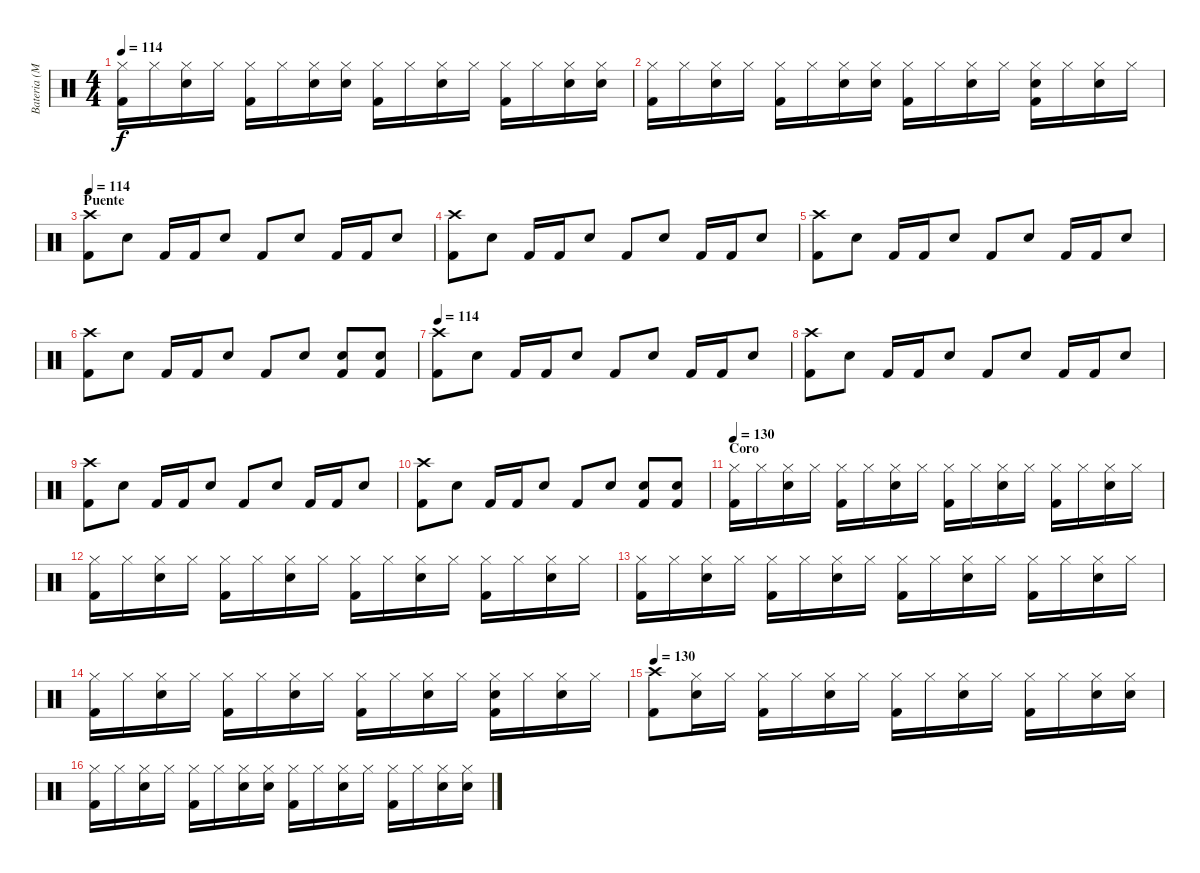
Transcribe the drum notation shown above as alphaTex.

\track ("Bateria (Marcelo)" "Bateria (M") {instrument percussion}
\staff {score}
\articulation defaults
\ts (4 4)
\tempo 114
\clef neutral
\ks c
("Kick (hit) 2" "Hi-Hat (closed)").16{dy f volume 13} "Hi-Hat (closed)".16 ("Snare (hit) 2" "Hi-Hat (closed)").16 "Hi-Hat (closed)".16 ("Kick (hit) 2" "Hi-Hat (closed)").16 "Hi-Hat (closed)".16 ("Snare (hit) 2" "Hi-Hat (closed)").16 ("Snare (hit) 2" "Hi-Hat (closed)").16 ("Kick (hit) 2" "Hi-Hat (closed)").16 "Hi-Hat (closed)".16 ("Snare (hit) 2" "Hi-Hat (closed)").16 "Hi-Hat (closed)".16 ("Kick (hit) 2" "Hi-Hat (closed)").16 "Hi-Hat (closed)".16 ("Snare (hit) 2" "Hi-Hat (closed)").16 ("Snare (hit) 2" "Hi-Hat (closed)").16 |
("Kick (hit) 2" "Hi-Hat (closed)").16 "Hi-Hat (closed)".16 ("Snare (hit) 2" "Hi-Hat (closed)").16 "Hi-Hat (closed)".16 ("Kick (hit) 2" "Hi-Hat (closed)").16 "Hi-Hat (closed)".16 ("Snare (hit) 2" "Hi-Hat (closed)").16 ("Snare (hit) 2" "Hi-Hat (closed)").16 ("Kick (hit) 2" "Hi-Hat (closed)").16 "Hi-Hat (closed)".16 ("Snare (hit) 2" "Hi-Hat (closed)").16 "Hi-Hat (closed)".16 ("Kick (hit) 2" "Hi-Hat (closed)" "Snare (hit) 2").16 "Hi-Hat (closed)".16 ("Snare (hit) 2" "Hi-Hat (closed)").16 "Hi-Hat (closed)".16 |
\section ("" "Puente")
\tempo 114
("Kick (hit) 2" "Crash high (hit)").8{volume 13} "Snare (hit) 2".8 "Kick (hit) 2".16 "Kick (hit) 2".16 "Snare (hit) 2".8 "Kick (hit) 2".8 "Snare (hit) 2".8 "Kick (hit) 2".16 "Kick (hit) 2".16 "Snare (hit) 2".8 |
("Kick (hit) 2" "Crash high (hit)").8 "Snare (hit) 2".8 "Kick (hit) 2".16 "Kick (hit) 2".16 "Snare (hit) 2".8 "Kick (hit) 2".8 "Snare (hit) 2".8 "Kick (hit) 2".16 "Kick (hit) 2".16 "Snare (hit) 2".8 |
("Kick (hit) 2" "Crash high (hit)").8 "Snare (hit) 2".8 "Kick (hit) 2".16 "Kick (hit) 2".16 "Snare (hit) 2".8 "Kick (hit) 2".8 "Snare (hit) 2".8 "Kick (hit) 2".16 "Kick (hit) 2".16 "Snare (hit) 2".8 |
("Kick (hit) 2" "Crash high (hit)").8 "Snare (hit) 2".8 "Kick (hit) 2".16 "Kick (hit) 2".16 "Snare (hit) 2".8 "Kick (hit) 2".8 "Snare (hit) 2".8 ("Kick (hit) 2" "Snare (hit) 2").8 ("Kick (hit) 2" "Snare (hit) 2").8 |
\tempo 114
("Kick (hit) 2" "Crash high (hit)").8{volume 13} "Snare (hit) 2".8 "Kick (hit) 2".16 "Kick (hit) 2".16 "Snare (hit) 2".8 "Kick (hit) 2".8 "Snare (hit) 2".8 "Kick (hit) 2".16 "Kick (hit) 2".16 "Snare (hit) 2".8 |
("Kick (hit) 2" "Crash high (hit)").8 "Snare (hit) 2".8 "Kick (hit) 2".16 "Kick (hit) 2".16 "Snare (hit) 2".8 "Kick (hit) 2".8 "Snare (hit) 2".8 "Kick (hit) 2".16 "Kick (hit) 2".16 "Snare (hit) 2".8 |
("Kick (hit) 2" "Crash high (hit)").8 "Snare (hit) 2".8 "Kick (hit) 2".16 "Kick (hit) 2".16 "Snare (hit) 2".8 "Kick (hit) 2".8 "Snare (hit) 2".8 "Kick (hit) 2".16 "Kick (hit) 2".16 "Snare (hit) 2".8 |
("Kick (hit) 2" "Crash high (hit)").8 "Snare (hit) 2".8 "Kick (hit) 2".16 "Kick (hit) 2".16 "Snare (hit) 2".8 "Kick (hit) 2".8 "Snare (hit) 2".8 ("Kick (hit) 2" "Snare (hit) 2").8 ("Kick (hit) 2" "Snare (hit) 2").8 |
\section ("" "Coro")
\tempo 130
("Kick (hit) 2" "Hi-Hat (closed)").16{volume 13} "Hi-Hat (closed)".16 ("Snare (hit) 2" "Hi-Hat (closed)").16 "Hi-Hat (closed)".16 ("Kick (hit) 2" "Hi-Hat (closed)").16 "Hi-Hat (closed)".16 ("Snare (hit) 2" "Hi-Hat (closed)").16 "Hi-Hat (closed)".16 ("Kick (hit) 2" "Hi-Hat (closed)").16 "Hi-Hat (closed)".16 ("Snare (hit) 2" "Hi-Hat (closed)").16 "Hi-Hat (closed)".16 ("Kick (hit) 2" "Hi-Hat (closed)").16 "Hi-Hat (closed)".16 ("Snare (hit) 2" "Hi-Hat (closed)").16 "Hi-Hat (closed)".16 |
("Kick (hit) 2" "Hi-Hat (closed)").16 "Hi-Hat (closed)".16 ("Snare (hit) 2" "Hi-Hat (closed)").16 "Hi-Hat (closed)".16 ("Kick (hit) 2" "Hi-Hat (closed)").16 "Hi-Hat (closed)".16 ("Snare (hit) 2" "Hi-Hat (closed)").16 "Hi-Hat (closed)".16 ("Kick (hit) 2" "Hi-Hat (closed)").16 "Hi-Hat (closed)".16 ("Snare (hit) 2" "Hi-Hat (closed)").16 "Hi-Hat (closed)".16 ("Kick (hit) 2" "Hi-Hat (closed)").16 "Hi-Hat (closed)".16 ("Snare (hit) 2" "Hi-Hat (closed)").16 "Hi-Hat (closed)".16 |
("Kick (hit) 2" "Hi-Hat (closed)").16 "Hi-Hat (closed)".16 ("Snare (hit) 2" "Hi-Hat (closed)").16 "Hi-Hat (closed)".16 ("Kick (hit) 2" "Hi-Hat (closed)").16 "Hi-Hat (closed)".16 ("Snare (hit) 2" "Hi-Hat (closed)").16 "Hi-Hat (closed)".16 ("Kick (hit) 2" "Hi-Hat (closed)").16 "Hi-Hat (closed)".16 ("Snare (hit) 2" "Hi-Hat (closed)").16 "Hi-Hat (closed)".16 ("Kick (hit) 2" "Hi-Hat (closed)").16 "Hi-Hat (closed)".16 ("Snare (hit) 2" "Hi-Hat (closed)").16 "Hi-Hat (closed)".16 |
("Kick (hit) 2" "Hi-Hat (closed)").16 "Hi-Hat (closed)".16 ("Snare (hit) 2" "Hi-Hat (closed)").16 "Hi-Hat (closed)".16 ("Kick (hit) 2" "Hi-Hat (closed)").16 "Hi-Hat (closed)".16 ("Snare (hit) 2" "Hi-Hat (closed)").16 "Hi-Hat (closed)".16 ("Kick (hit) 2" "Hi-Hat (closed)").16 "Hi-Hat (closed)".16 ("Snare (hit) 2" "Hi-Hat (closed)").16 "Hi-Hat (closed)".16 ("Kick (hit) 2" "Hi-Hat (closed)" "Snare (hit) 2").16 "Hi-Hat (closed)".16 ("Snare (hit) 2" "Hi-Hat (closed)").16 "Hi-Hat (closed)".16 |
\tempo 130
("Kick (hit) 2" "Crash high (hit)").8{volume 13} ("Snare (hit) 2" "Hi-Hat (closed)").16 "Hi-Hat (closed)".16 ("Kick (hit) 2" "Hi-Hat (closed)").16 "Hi-Hat (closed)".16 ("Snare (hit) 2" "Hi-Hat (closed)").16 "Hi-Hat (closed)".16 ("Kick (hit) 2" "Hi-Hat (closed)").16 "Hi-Hat (closed)".16 ("Snare (hit) 2" "Hi-Hat (closed)").16 "Hi-Hat (closed)".16 ("Kick (hit) 2" "Hi-Hat (closed)").16 "Hi-Hat (closed)".16 ("Snare (hit) 2" "Hi-Hat (closed)").16 ("Snare (hit) 2" "Hi-Hat (closed)").16 |
("Kick (hit) 2" "Hi-Hat (closed)").16 "Hi-Hat (closed)".16 ("Snare (hit) 2" "Hi-Hat (closed)").16 "Hi-Hat (closed)".16 ("Kick (hit) 2" "Hi-Hat (closed)").16 "Hi-Hat (closed)".16 ("Snare (hit) 2" "Hi-Hat (closed)").16 ("Snare (hit) 2" "Hi-Hat (closed)").16 ("Kick (hit) 2" "Hi-Hat (closed)").16 "Hi-Hat (closed)".16 ("Snare (hit) 2" "Hi-Hat (closed)").16 "Hi-Hat (closed)".16 ("Kick (hit) 2" "Hi-Hat (closed)").16 "Hi-Hat (closed)".16 ("Snare (hit) 2" "Hi-Hat (closed)").16 ("Snare (hit) 2" "Hi-Hat (closed)").16
